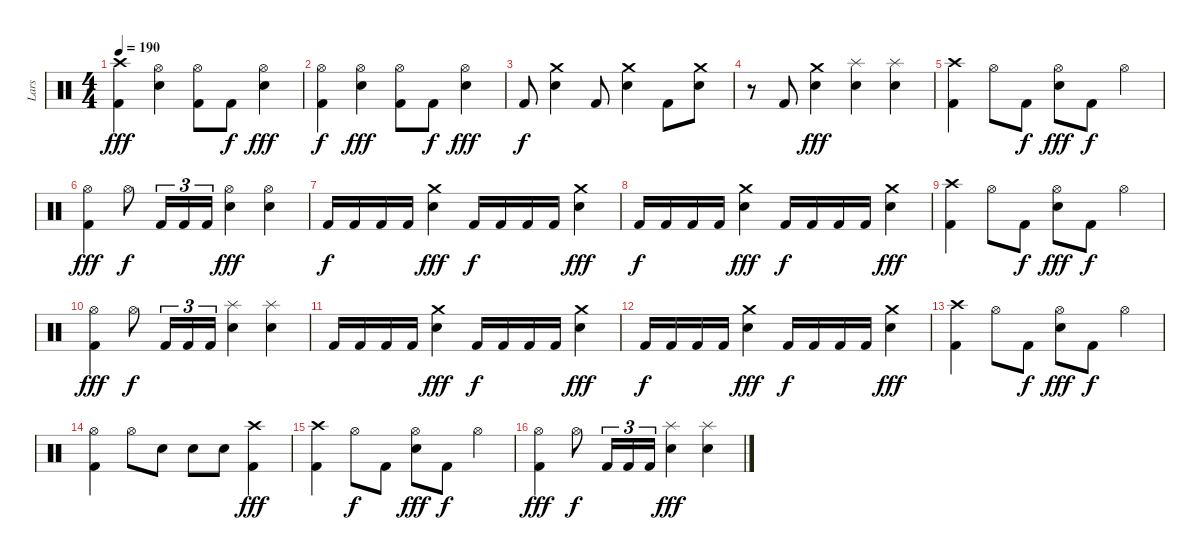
\track ("Lars" "Lars") {instrument percussion}
\staff {score}
\articulation defaults
\ts (4 4)
\tempo 190
\clef neutral
\ks c
("Crash high (hit)" "Kick (hit) 2").4{dy fff} ("Hi-Hat (open)" "Snare (hit) 2").4 ("Hi-Hat (open)" "Kick (hit) 2").8 "Kick (hit) 2".8{dy f} ("Hi-Hat (open)" "Snare (hit) 2").4{dy fff} |
("Hi-Hat (open)" "Kick (hit) 2").4{dy f} ("Hi-Hat (open)" "Snare (hit) 2").4{dy fff} ("Hi-Hat (open)" "Kick (hit) 2").8 "Kick (hit) 2".8{dy f} ("Hi-Hat (open)" "Snare (hit) 2").4{dy fff} |
"Kick (hit) 2".8{dy f} ("Crash medium (hit)" "Snare (hit) 2").4 "Kick (hit) 2".8 ("Crash medium (hit)" "Snare (hit) 2").4 "Kick (hit) 2".8 ("Crash medium (hit)" "Snare (hit) 2").8 |
r.8 "Kick (hit) 2".8 ("Crash medium (hit)" "Snare (hit) 2").4{dy fff} ("Splash (hit)" "Snare (hit) 2").4 ("Splash (hit)" "Snare (hit) 2").4 |
("Crash high (hit)" "Kick (hit) 2").4 "Hi-Hat (open)".8 "Kick (hit) 2".8{dy f} ("Hi-Hat (open)" "Snare (hit) 2").8{dy fff} "Kick (hit) 2".8{dy f} "Hi-Hat (open)".4 |
("Hi-Hat (open)" "Kick (hit) 2").4{dy fff} "Hi-Hat (open)".8{dy f} "Kick (hit) 2".16{tu (3 2)} "Kick (hit) 2".16{tu (3 2)} "Kick (hit) 2".16{tu (3 2)} ("Hi-Hat (open)" "Snare (hit) 2").4{dy fff} ("Hi-Hat (open)" "Snare (hit) 2").4 |
"Kick (hit) 2".16{dy f} "Kick (hit) 2".16 "Kick (hit) 2".16 "Kick (hit) 2".16 ("Crash medium (hit)" "Snare (hit) 2").4{dy fff} "Kick (hit) 2".16{dy f} "Kick (hit) 2".16 "Kick (hit) 2".16 "Kick (hit) 2".16 ("Crash medium (hit)" "Snare (hit) 2").4{dy fff} |
"Kick (hit) 2".16{dy f} "Kick (hit) 2".16 "Kick (hit) 2".16 "Kick (hit) 2".16 ("Crash medium (hit)" "Snare (hit) 2").4{dy fff} "Kick (hit) 2".16{dy f} "Kick (hit) 2".16 "Kick (hit) 2".16 "Kick (hit) 2".16 ("Crash medium (hit)" "Snare (hit) 2").4{dy fff} |
("Crash high (hit)" "Kick (hit) 2").4 "Hi-Hat (open)".8 "Kick (hit) 2".8{dy f} ("Hi-Hat (open)" "Snare (hit) 2").8{dy fff} "Kick (hit) 2".8{dy f} "Hi-Hat (open)".4 |
("Hi-Hat (open)" "Kick (hit) 2").4{dy fff} "Hi-Hat (open)".8{dy f} "Kick (hit) 2".16{tu (3 2)} "Kick (hit) 2".16{tu (3 2)} "Kick (hit) 2".16{tu (3 2)} ("Splash (hit)" "Snare (hit) 2").4 ("Splash (hit)" "Snare (hit) 2").4 |
"Kick (hit) 2".16 "Kick (hit) 2".16 "Kick (hit) 2".16 "Kick (hit) 2".16 ("Crash medium (hit)" "Snare (hit) 2").4{dy fff} "Kick (hit) 2".16{dy f} "Kick (hit) 2".16 "Kick (hit) 2".16 "Kick (hit) 2".16 ("Crash medium (hit)" "Snare (hit) 2").4{dy fff} |
"Kick (hit) 2".16{dy f} "Kick (hit) 2".16 "Kick (hit) 2".16 "Kick (hit) 2".16 ("Crash medium (hit)" "Snare (hit) 2").4{dy fff} "Kick (hit) 2".16{dy f} "Kick (hit) 2".16 "Kick (hit) 2".16 "Kick (hit) 2".16 ("Crash medium (hit)" "Snare (hit) 2").4{dy fff} |
("Crash high (hit)" "Kick (hit) 2").4 "Hi-Hat (open)".8 "Kick (hit) 2".8{dy f} ("Hi-Hat (open)" "Snare (hit) 2").8{dy fff} "Kick (hit) 2".8{dy f} "Hi-Hat (open)".4 |
("Hi-Hat (open)" "Kick (hit) 2").4 "Hi-Hat (open)".8 "Snare (hit) 2".8 "Snare (hit) 2".8 "Snare (hit) 2".8 ("Crash high (hit)" "Kick (hit) 2").4{dy fff} |
("Crash high (hit)" "Kick (hit) 2").4 "Hi-Hat (open)".8{dy f} "Kick (hit) 2".8 ("Hi-Hat (open)" "Snare (hit) 2").8{dy fff} "Kick (hit) 2".8{dy f} "Hi-Hat (open)".4 |
("Hi-Hat (open)" "Kick (hit) 2").4{dy fff} "Hi-Hat (open)".8{dy f} "Kick (hit) 2".16{tu (3 2)} "Kick (hit) 2".16{tu (3 2)} "Kick (hit) 2".16{tu (3 2)} ("Splash (hit)" "Snare (hit) 2").4{dy fff} ("Splash (hit)" "Snare (hit) 2").4
